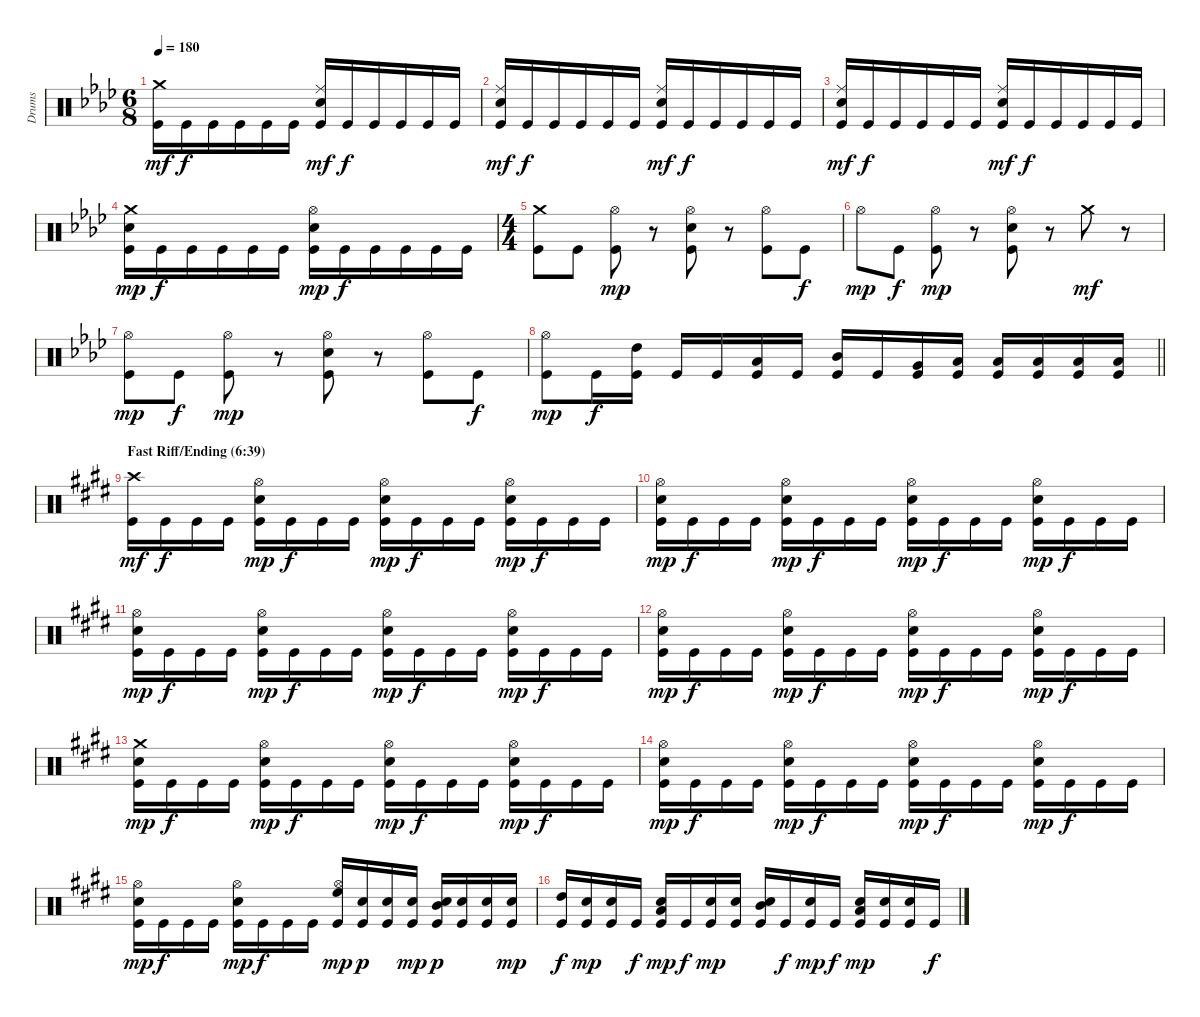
\track ("Drums" "Drums") {instrument percussion}
\staff {score}
\articulation defaults
\ts (6 8)
\tempo 180
\clef neutral
\ks fminor
("Crash medium (hit)" "Kick (hit)").16{dy mf} "Kick (hit)".16{dy f} "Kick (hit)".16 "Kick (hit)".16 "Kick (hit)".16 "Kick (hit)".16 ("Ride (middle)" "Snare (hit) 2" "Kick (hit)").16{dy mf} "Kick (hit)".16{dy f} "Kick (hit)".16 "Kick (hit)".16 "Kick (hit)".16 "Kick (hit)".16 |
("Ride (middle)" "Snare (hit) 2" "Kick (hit)").16{dy mf} "Kick (hit)".16{dy f} "Kick (hit)".16 "Kick (hit)".16 "Kick (hit)".16 "Kick (hit)".16 ("Ride (middle)" "Snare (hit) 2" "Kick (hit)").16{dy mf} "Kick (hit)".16{dy f} "Kick (hit)".16 "Kick (hit)".16 "Kick (hit)".16 "Kick (hit)".16 |
("Ride (middle)" "Snare (hit) 2" "Kick (hit)").16{dy mf} "Kick (hit)".16{dy f} "Kick (hit)".16 "Kick (hit)".16 "Kick (hit)".16 "Kick (hit)".16 ("Ride (middle)" "Snare (hit) 2" "Kick (hit)").16{dy mf} "Kick (hit)".16{dy f} "Kick (hit)".16 "Kick (hit)".16 "Kick (hit)".16 "Kick (hit)".16 |
("Crash medium (hit)" "Snare (hit) 2" "Kick (hit)").16{dy mp} "Kick (hit)".16{dy f} "Kick (hit)".16 "Kick (hit)".16 "Kick (hit)".16 "Kick (hit)".16 ("Hi-Hat (open)" "Snare (hit) 2" "Kick (hit)").16{dy mp} "Kick (hit)".16{dy f} "Kick (hit)".16 "Kick (hit)".16 "Kick (hit)".16 "Kick (hit)".16 |
\ts (4 4)
("Crash medium (hit)" "Kick (hit)").8 "Kick (hit)".8 ("Hi-Hat (open)" "Kick (hit)").8{dy mp} r.8 ("Hi-Hat (open)" "Snare (hit) 2" "Kick (hit)").8 r.8 ("Hi-Hat (open)" "Kick (hit)").8 "Kick (hit)".8{dy f} |
"Hi-Hat (open)".8{dy mp} "Kick (hit)".8{dy f} ("Hi-Hat (open)" "Kick (hit)").8{dy mp} r.8 ("Hi-Hat (open)" "Snare (hit) 2" "Kick (hit)").8 r.8 "Crash medium (hit)".8{dy mf} r.8 |
("Hi-Hat (open)" "Kick (hit)").8{dy mp} "Kick (hit)".8{dy f} ("Hi-Hat (open)" "Kick (hit)").8{dy mp} r.8 ("Hi-Hat (open)" "Snare (hit) 2" "Kick (hit)").8 r.8 ("Hi-Hat (open)" "Kick (hit)").8 "Kick (hit)".8{dy f} |
\barLineRight lightlight
("Hi-Hat (open)" "Kick (hit)").8{dy mp} "Kick (hit)".16{dy f} ("High Tom (hit)" "Kick (hit)").16 "Kick (hit)".16 "Kick (hit)".16 ("Low Tom (hit)" "Kick (hit)").16 "Kick (hit)".16 ("Mid Tom (hit)" "Kick (hit)").16 "Kick (hit)".16 ("Very Low Tom (hit)" "Kick (hit)").16 ("Low Floor Tom (hit)" "Kick (hit)").16 ("Low Floor Tom (hit)" "Kick (hit)").16 ("Low Floor Tom (hit)" "Kick (hit)").16 ("Low Floor Tom (hit)" "Kick (hit)").16 ("Low Floor Tom (hit)" "Kick (hit)").16 |
\section ("" "Fast Riff/Ending (6:39)")
\ks c#minor
("Crash high (hit)" "Kick (hit)").16{dy mf} "Kick (hit)".16{dy f} "Kick (hit)".16 "Kick (hit)".16 ("Hi-Hat (open)" "Snare (hit) 2" "Kick (hit)").16{dy mp} "Kick (hit)".16{dy f} "Kick (hit)".16 "Kick (hit)".16 ("Hi-Hat (open)" "Snare (hit) 2" "Kick (hit)").16{dy mp} "Kick (hit)".16{dy f} "Kick (hit)".16 "Kick (hit)".16 ("Hi-Hat (open)" "Snare (hit) 2" "Kick (hit)").16{dy mp} "Kick (hit)".16{dy f} "Kick (hit)".16 "Kick (hit)".16 |
("Hi-Hat (open)" "Snare (hit) 2" "Kick (hit)").16{dy mp} "Kick (hit)".16{dy f} "Kick (hit)".16 "Kick (hit)".16 ("Hi-Hat (open)" "Snare (hit) 2" "Kick (hit)").16{dy mp} "Kick (hit)".16{dy f} "Kick (hit)".16 "Kick (hit)".16 ("Hi-Hat (open)" "Snare (hit) 2" "Kick (hit)").16{dy mp} "Kick (hit)".16{dy f} "Kick (hit)".16 "Kick (hit)".16 ("Hi-Hat (open)" "Snare (hit) 2" "Kick (hit)").16{dy mp} "Kick (hit)".16{dy f} "Kick (hit)".16 "Kick (hit)".16 |
("Hi-Hat (open)" "Snare (hit) 2" "Kick (hit)").16{dy mp} "Kick (hit)".16{dy f} "Kick (hit)".16 "Kick (hit)".16 ("Hi-Hat (open)" "Snare (hit) 2" "Kick (hit)").16{dy mp} "Kick (hit)".16{dy f} "Kick (hit)".16 "Kick (hit)".16 ("Hi-Hat (open)" "Snare (hit) 2" "Kick (hit)").16{dy mp} "Kick (hit)".16{dy f} "Kick (hit)".16 "Kick (hit)".16 ("Hi-Hat (open)" "Snare (hit) 2" "Kick (hit)").16{dy mp} "Kick (hit)".16{dy f} "Kick (hit)".16 "Kick (hit)".16 |
("Hi-Hat (open)" "Snare (hit) 2" "Kick (hit)").16{dy mp} "Kick (hit)".16{dy f} "Kick (hit)".16 "Kick (hit)".16 ("Hi-Hat (open)" "Snare (hit) 2" "Kick (hit)").16{dy mp} "Kick (hit)".16{dy f} "Kick (hit)".16 "Kick (hit)".16 ("Hi-Hat (open)" "Snare (hit) 2" "Kick (hit)").16{dy mp} "Kick (hit)".16{dy f} "Kick (hit)".16 "Kick (hit)".16 ("Hi-Hat (open)" "Snare (hit) 2" "Kick (hit)").16{dy mp} "Kick (hit)".16{dy f} "Kick (hit)".16 "Kick (hit)".16 |
("Crash medium (hit)" "Snare (hit) 2" "Kick (hit)").16{dy mp} "Kick (hit)".16{dy f} "Kick (hit)".16 "Kick (hit)".16 ("Hi-Hat (open)" "Snare (hit) 2" "Kick (hit)").16{dy mp} "Kick (hit)".16{dy f} "Kick (hit)".16 "Kick (hit)".16 ("Hi-Hat (open)" "Snare (hit) 2" "Kick (hit)").16{dy mp} "Kick (hit)".16{dy f} "Kick (hit)".16 "Kick (hit)".16 ("Hi-Hat (open)" "Snare (hit) 2" "Kick (hit)").16{dy mp} "Kick (hit)".16{dy f} "Kick (hit)".16 "Kick (hit)".16 |
("Hi-Hat (open)" "Snare (hit) 2" "Kick (hit)").16{dy mp} "Kick (hit)".16{dy f} "Kick (hit)".16 "Kick (hit)".16 ("Hi-Hat (open)" "Snare (hit) 2" "Kick (hit)").16{dy mp} "Kick (hit)".16{dy f} "Kick (hit)".16 "Kick (hit)".16 ("Hi-Hat (open)" "Snare (hit) 2" "Kick (hit)").16{dy mp} "Kick (hit)".16{dy f} "Kick (hit)".16 "Kick (hit)".16 ("Hi-Hat (open)" "Snare (hit) 2" "Kick (hit)").16{dy mp} "Kick (hit)".16{dy f} "Kick (hit)".16 "Kick (hit)".16 |
("Hi-Hat (open)" "Snare (hit) 2" "Kick (hit)").16{dy mp} "Kick (hit)".16{dy f} "Kick (hit)".16 "Kick (hit)".16 ("Hi-Hat (open)" "Snare (hit) 2" "Kick (hit)").16{dy mp} "Kick (hit)".16{dy f} "Kick (hit)".16 "Kick (hit)".16 ("Hi-Hat (open)" "High Floor Tom (hit)" "Kick (hit)").16{dy mp} ("Snare (hit) 2" "Kick (hit)").16{dy p} ("Snare (hit) 2" "Kick (hit)").16 ("Snare (hit) 2" "Kick (hit)").16{dy mp} ("Mid Tom (hit)" "Snare (hit) 2" "Kick (hit)").16{dy p} ("Snare (hit) 2" "Kick (hit)").16 ("Snare (hit) 2" "Kick (hit)").16 ("Snare (hit) 2" "Kick (hit)").16{dy mp} |
("High Tom (hit)" "Kick (hit)").16{dy f} ("Snare (hit) 2" "Kick (hit)").16{dy mp} ("Snare (hit) 2" "Kick (hit)").16 "Kick (hit)".16{dy f} ("Low Tom (hit)" "Snare (hit) 2" "Kick (hit)").16{dy mp} "Kick (hit)".16{dy f} ("Snare (hit) 2" "Kick (hit)").16{dy mp} ("Snare (hit) 2" "Kick (hit)").16 ("Mid Tom (hit)" "Snare (hit) 2" "Kick (hit)").16 "Kick (hit)".16{dy f} ("Snare (hit) 2" "Kick (hit)").16{dy mp} "Kick (hit)".16{dy f} ("Low Floor Tom (hit)" "Snare (hit) 2" "Kick (hit)").16{dy mp} ("Snare (hit) 2" "Kick (hit)").16 ("Snare (hit) 2" "Kick (hit)").16 "Kick (hit)".16{dy f}
